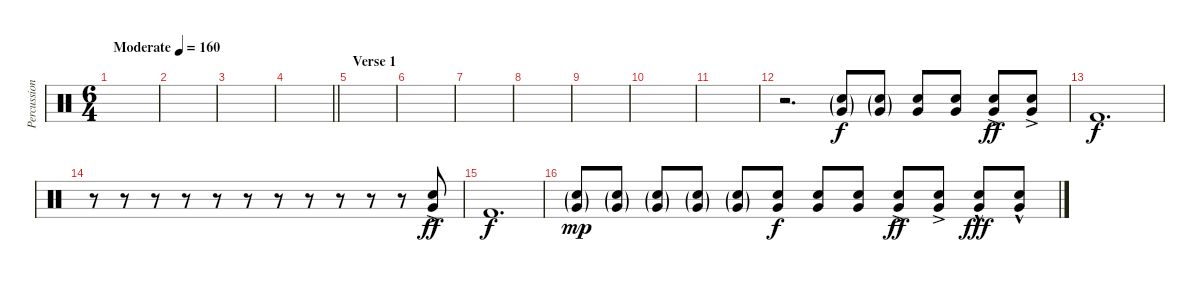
\track ("Percussion" "Percussion") {instrument percussion}
\staff {score}
\articulation defaults
\ts (6 4)
\tempo (160 "Moderate")
\clef neutral
\ks c
|
|
|
\barLineRight lightlight
|
\section ("" "Verse 1")
|
|
|
|
|
|
|
r.2{d} ("Snare (hit) 2"{g} "Very Low Tom (hit)"{g}).8 ("Snare (hit) 2"{g} "Very Low Tom (hit)"{g}).8 ("Snare (hit) 2" "Very Low Tom (hit)").8{dy f} ("Snare (hit) 2" "Very Low Tom (hit)").8 ("Snare (hit) 2"{ac} "Very Low Tom (hit)"{ac}).8{dy ff} ("Snare (hit) 2"{ac} "Very Low Tom (hit)"{ac}).8 |
"Kick (hit) 2".1{d dy f} |
r.8 r.8 r.8 r.8 r.8 r.8 r.8 r.8 r.8 r.8 r.8 ("Snare (hit) 2"{ac} "Very Low Tom (hit)"{ac}).8{dy ff} |
"Kick (hit) 2".1{d dy f} |
("Snare (hit) 2"{g} "Very Low Tom (hit)"{g}).8{dy mp} ("Snare (hit) 2"{g} "Very Low Tom (hit)"{g}).8 ("Snare (hit) 2"{g} "Very Low Tom (hit)"{g}).8 ("Snare (hit) 2"{g} "Very Low Tom (hit)"{g}).8 ("Snare (hit) 2"{g} "Very Low Tom (hit)"{g}).8 ("Snare (hit) 2" "Very Low Tom (hit)").8{dy f} ("Snare (hit) 2" "Very Low Tom (hit)").8 ("Snare (hit) 2" "Very Low Tom (hit)").8 ("Snare (hit) 2"{ac} "Very Low Tom (hit)"{ac}).8{dy ff} ("Snare (hit) 2"{ac} "Very Low Tom (hit)"{ac}).8 ("Snare (hit) 2"{hac} "Very Low Tom (hit)"{hac}).8{dy fff} ("Snare (hit) 2"{hac} "Very Low Tom (hit)"{hac}).8
